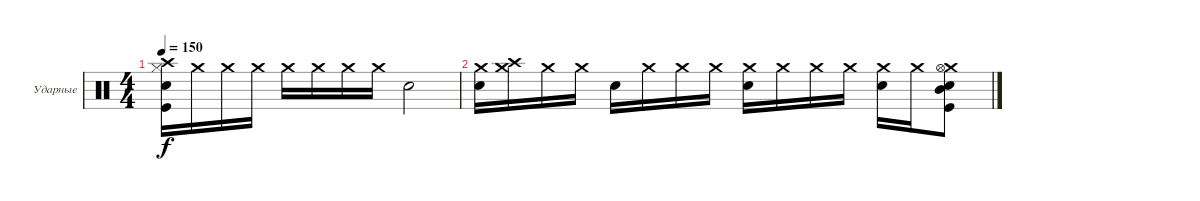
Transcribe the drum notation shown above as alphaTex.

\bracketExtendMode groupsimilarinstruments
\firstSystemTrackNameOrientation horizontal
\otherSystemsTrackNameOrientation horizontal
\track ("Максим Удалов" "Ударные") {instrument percussion}
\staff {score}
\articulation defaults
\ts (4 4)
\tempo 150
\clef neutral
\ks c
("Crash high (hit)" "Snare (hit) 2" "Hi-Hat (closed)" "Kick (hit)").16{dy f} "Crash medium (hit)".16 "Crash medium (hit)".16 "Crash medium (hit)".16 "Crash medium (hit)".16 "Crash medium (hit)".16 "Crash medium (hit)".16 "Crash medium (hit)".16 "Snare (hit) 2".2 |
("Crash medium (hit)" "Snare (hit) 2").16 ("Crash medium (hit)" "Crash high (hit)").16 "Crash medium (hit)".16 "Crash medium (hit)".16 "Snare (hit) 2".16 "Crash medium (hit)".16 "Crash medium (hit)".16 "Crash medium (hit)".16 ("Crash medium (hit)" "Snare (hit) 2").16 "Crash medium (hit)".16 "Crash medium (hit)".16 "Crash medium (hit)".16 ("Crash medium (hit)" "Snare (hit) 2").16 "Crash medium (hit)".16 ("Snare (hit) 2" "Crash medium (hit)" "Kick (hit)" "Hi-Hat (open)" "Mid Tom (hit)").8
